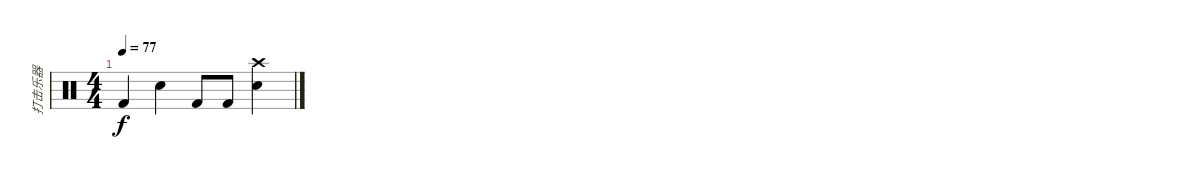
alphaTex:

\track ("打击乐器" "打击乐器") {instrument percussion}
\staff {score}
\articulation defaults
\ts (4 4)
\tempo 77
\clef neutral
\ks c "Kick (hit) 2".4{dy f} "Snare (hit) 2".4 "Kick (hit) 2".8 "Kick (hit) 2".8
("Snare (hit) 2" "Crash high (hit)").4
